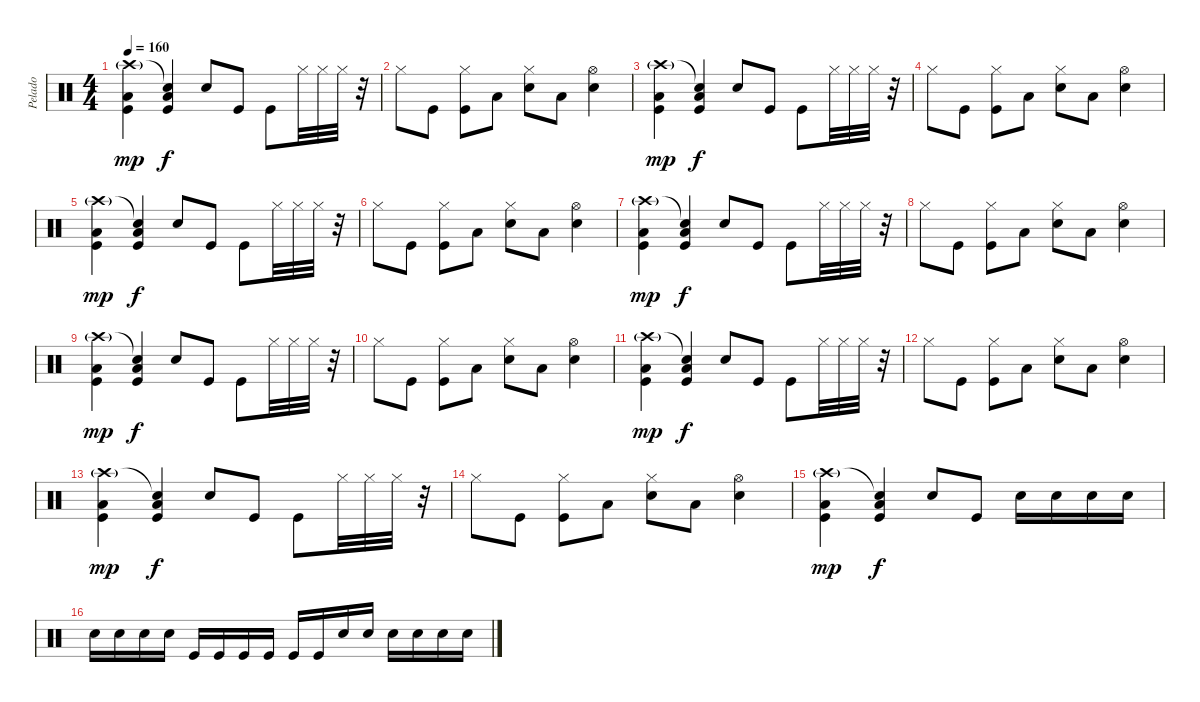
\track ("Pelado" "Pelado") {instrument percussion}
\staff {score}
\articulation defaults
\ts (4 4)
\tempo 160
\clef neutral
\ks c
("Crash high (hit)"{g} "Kick (hit)" "Low Tom (hit)").4{dy mp} ("Snare (hit)"{t} "Kick (hit)" "Low Tom (hit)").4{dy f} "Snare (hit) 2".8 "Kick (hit)".8 "Kick (hit)".8 "Hi-Hat (closed)".32 "Hi-Hat (closed)".32 "Hi-Hat (closed)".32 r.32 |
"Hi-Hat (closed)".8 "Kick (hit)".8 ("Hi-Hat (closed)" "Kick (hit)").8 "Low Tom (hit)".8 ("Hi-Hat (closed)" "Snare (hit) 2").8 "Low Tom (hit)".8 ("Hi-Hat (open)" "Snare (hit) 2").4 |
("Crash high (hit)"{g} "Kick (hit)" "Low Tom (hit)").4{dy mp} ("Snare (hit)"{t} "Kick (hit)" "Low Tom (hit)").4{dy f} "Snare (hit) 2".8 "Kick (hit)".8 "Kick (hit)".8 "Hi-Hat (closed)".32 "Hi-Hat (closed)".32 "Hi-Hat (closed)".32 r.32 |
"Hi-Hat (closed)".8 "Kick (hit)".8 ("Hi-Hat (closed)" "Kick (hit)").8 "Low Tom (hit)".8 ("Hi-Hat (closed)" "Snare (hit) 2").8 "Low Tom (hit)".8 ("Hi-Hat (open)" "Snare (hit) 2").4 |
("Crash high (hit)"{g} "Kick (hit)" "Low Tom (hit)").4{dy mp} ("Snare (hit)"{t} "Kick (hit)" "Low Tom (hit)").4{dy f} "Snare (hit) 2".8 "Kick (hit)".8 "Kick (hit)".8 "Hi-Hat (closed)".32 "Hi-Hat (closed)".32 "Hi-Hat (closed)".32 r.32 |
"Hi-Hat (closed)".8 "Kick (hit)".8 ("Hi-Hat (closed)" "Kick (hit)").8 "Low Tom (hit)".8 ("Hi-Hat (closed)" "Snare (hit) 2").8 "Low Tom (hit)".8 ("Hi-Hat (open)" "Snare (hit) 2").4 |
("Crash high (hit)"{g} "Kick (hit)" "Low Tom (hit)").4{dy mp} ("Snare (hit)"{t} "Kick (hit)" "Low Tom (hit)").4{dy f} "Snare (hit) 2".8 "Kick (hit)".8 "Kick (hit)".8 "Hi-Hat (closed)".32 "Hi-Hat (closed)".32 "Hi-Hat (closed)".32 r.32 |
"Hi-Hat (closed)".8 "Kick (hit)".8 ("Hi-Hat (closed)" "Kick (hit)").8 "Low Tom (hit)".8 ("Hi-Hat (closed)" "Snare (hit) 2").8 "Low Tom (hit)".8 ("Hi-Hat (open)" "Snare (hit) 2").4 |
("Crash high (hit)"{g} "Kick (hit)" "Low Tom (hit)").4{dy mp} ("Snare (hit)"{t} "Kick (hit)" "Low Tom (hit)").4{dy f} "Snare (hit) 2".8 "Kick (hit)".8 "Kick (hit)".8 "Hi-Hat (closed)".32 "Hi-Hat (closed)".32 "Hi-Hat (closed)".32 r.32 |
"Hi-Hat (closed)".8 "Kick (hit)".8 ("Hi-Hat (closed)" "Kick (hit)").8 "Low Tom (hit)".8 ("Hi-Hat (closed)" "Snare (hit) 2").8 "Low Tom (hit)".8 ("Hi-Hat (open)" "Snare (hit) 2").4 |
("Crash high (hit)"{g} "Kick (hit)" "Low Tom (hit)").4{dy mp} ("Snare (hit)"{t} "Kick (hit)" "Low Tom (hit)").4{dy f} "Snare (hit) 2".8 "Kick (hit)".8 "Kick (hit)".8 "Hi-Hat (closed)".32 "Hi-Hat (closed)".32 "Hi-Hat (closed)".32 r.32 |
"Hi-Hat (closed)".8 "Kick (hit)".8 ("Hi-Hat (closed)" "Kick (hit)").8 "Low Tom (hit)".8 ("Hi-Hat (closed)" "Snare (hit) 2").8 "Low Tom (hit)".8 ("Hi-Hat (open)" "Snare (hit) 2").4 |
("Crash high (hit)"{g} "Kick (hit)" "Low Tom (hit)").4{dy mp} ("Snare (hit)"{t} "Kick (hit)" "Low Tom (hit)").4{dy f} "Snare (hit) 2".8 "Kick (hit)".8 "Kick (hit)".8 "Hi-Hat (closed)".32 "Hi-Hat (closed)".32 "Hi-Hat (closed)".32 r.32 |
"Hi-Hat (closed)".8 "Kick (hit)".8 ("Hi-Hat (closed)" "Kick (hit)").8 "Low Tom (hit)".8 ("Hi-Hat (closed)" "Snare (hit) 2").8 "Low Tom (hit)".8 ("Hi-Hat (open)" "Snare (hit) 2").4 |
("Crash high (hit)"{g} "Kick (hit)" "Low Tom (hit)").4{dy mp} ("Snare (hit)"{t} "Kick (hit)" "Low Tom (hit)").4{dy f} "Snare (hit) 2".8 "Kick (hit)".8 "Snare (hit) 2".16 "Snare (hit) 2".16 "Snare (hit) 2".16 "Snare (hit) 2".16 |
"Snare (hit) 2".16 "Snare (hit) 2".16 "Snare (hit) 2".16 "Snare (hit) 2".16 "Kick (hit)".16 "Kick (hit)".16 "Kick (hit)".16 "Kick (hit)".16 "Kick (hit)".16 "Kick (hit)".16 "Snare (hit) 2".16 "Snare (hit) 2".16 "Snare (hit) 2".16 "Snare (hit) 2".16 "Snare (hit) 2".16 "Snare (hit) 2".16
